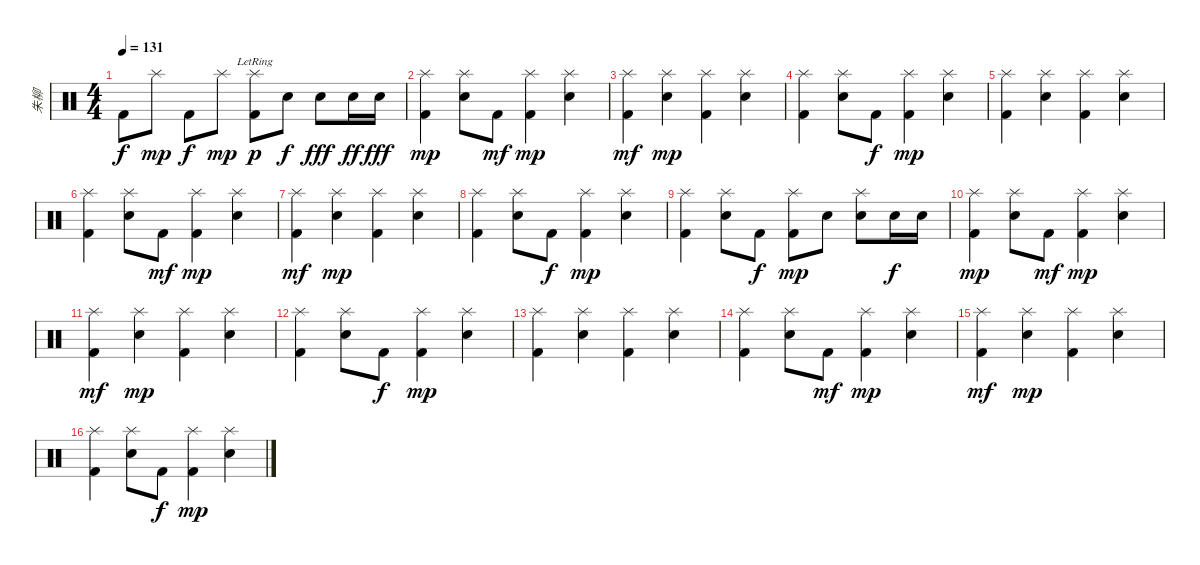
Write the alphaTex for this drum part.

\track ("朱柳" "朱柳") {instrument percussion}
\staff {score}
\articulation defaults
\ts (4 4)
\tempo 131
\clef neutral
\ks c "Kick (hit) 2".8{dy f} "Splash (hit)".8{dy mp} "Kick (hit) 2".8{dy f} "Splash (hit)".8{dy mp}
("Splash (hit)"{lr} "Kick (hit) 2").8{dy p} "Electric Snare (hit)".8{dy f} "Electric Snare (hit)".8{dy fff} "Electric Snare (hit)".16{dy ff} "Electric Snare (hit)".16{dy fff} |
("Splash (hit)" "Kick (hit) 2").4{dy mp} ("Splash (hit)" "Electric Snare (hit)").8 "Kick (hit) 2".8{dy mf} ("Splash (hit)" "Kick (hit) 2").4{dy mp} ("Splash (hit)" "Electric Snare (hit)").4 |
("Splash (hit)" "Kick (hit) 2").4{dy mf} ("Splash (hit)" "Electric Snare (hit)").4{dy mp} ("Splash (hit)" "Kick (hit) 2").4 ("Splash (hit)" "Electric Snare (hit)").4 |
("Splash (hit)" "Kick (hit) 2").4 ("Splash (hit)" "Electric Snare (hit)").8 "Kick (hit) 2".8{dy f} ("Splash (hit)" "Kick (hit) 2").4{dy mp} ("Splash (hit)" "Electric Snare (hit)").4 |
("Splash (hit)" "Kick (hit) 2").4 ("Splash (hit)" "Electric Snare (hit)").4 ("Splash (hit)" "Kick (hit) 2").4 ("Splash (hit)" "Electric Snare (hit)").4 |
("Splash (hit)" "Kick (hit) 2").4 ("Splash (hit)" "Electric Snare (hit)").8 "Kick (hit) 2".8{dy mf} ("Splash (hit)" "Kick (hit) 2").4{dy mp} ("Splash (hit)" "Electric Snare (hit)").4 |
("Splash (hit)" "Kick (hit) 2").4{dy mf} ("Splash (hit)" "Electric Snare (hit)").4{dy mp} ("Splash (hit)" "Kick (hit) 2").4 ("Splash (hit)" "Electric Snare (hit)").4 |
("Splash (hit)" "Kick (hit) 2").4 ("Splash (hit)" "Electric Snare (hit)").8 "Kick (hit) 2".8{dy f} ("Splash (hit)" "Kick (hit) 2").4{dy mp} ("Splash (hit)" "Electric Snare (hit)").4 |
("Splash (hit)" "Kick (hit) 2").4 ("Splash (hit)" "Electric Snare (hit)").8 "Kick (hit) 2".8{dy f} ("Splash (hit)" "Kick (hit) 2").8{dy mp} "Electric Snare (hit)".8 ("Splash (hit)" "Electric Snare (hit)").8 "Electric Snare (hit)".16{dy f} "Electric Snare (hit)".16 |
("Splash (hit)" "Kick (hit) 2").4{dy mp} ("Splash (hit)" "Electric Snare (hit)").8 "Kick (hit) 2".8{dy mf} ("Splash (hit)" "Kick (hit) 2").4{dy mp} ("Splash (hit)" "Electric Snare (hit)").4 |
("Splash (hit)" "Kick (hit) 2").4{dy mf} ("Splash (hit)" "Electric Snare (hit)").4{dy mp} ("Splash (hit)" "Kick (hit) 2").4 ("Splash (hit)" "Electric Snare (hit)").4 |
("Splash (hit)" "Kick (hit) 2").4 ("Splash (hit)" "Electric Snare (hit)").8 "Kick (hit) 2".8{dy f} ("Splash (hit)" "Kick (hit) 2").4{dy mp} ("Splash (hit)" "Electric Snare (hit)").4 |
("Splash (hit)" "Kick (hit) 2").4 ("Splash (hit)" "Electric Snare (hit)").4 ("Splash (hit)" "Kick (hit) 2").4 ("Splash (hit)" "Electric Snare (hit)").4 |
("Splash (hit)" "Kick (hit) 2").4 ("Splash (hit)" "Electric Snare (hit)").8 "Kick (hit) 2".8{dy mf} ("Splash (hit)" "Kick (hit) 2").4{dy mp} ("Splash (hit)" "Electric Snare (hit)").4 |
("Splash (hit)" "Kick (hit) 2").4{dy mf} ("Splash (hit)" "Electric Snare (hit)").4{dy mp} ("Splash (hit)" "Kick (hit) 2").4 ("Splash (hit)" "Electric Snare (hit)").4 |
("Splash (hit)" "Kick (hit) 2").4 ("Splash (hit)" "Electric Snare (hit)").8 "Kick (hit) 2".8{dy f} ("Splash (hit)" "Kick (hit) 2").4{dy mp} ("Splash (hit)" "Electric Snare (hit)").4
